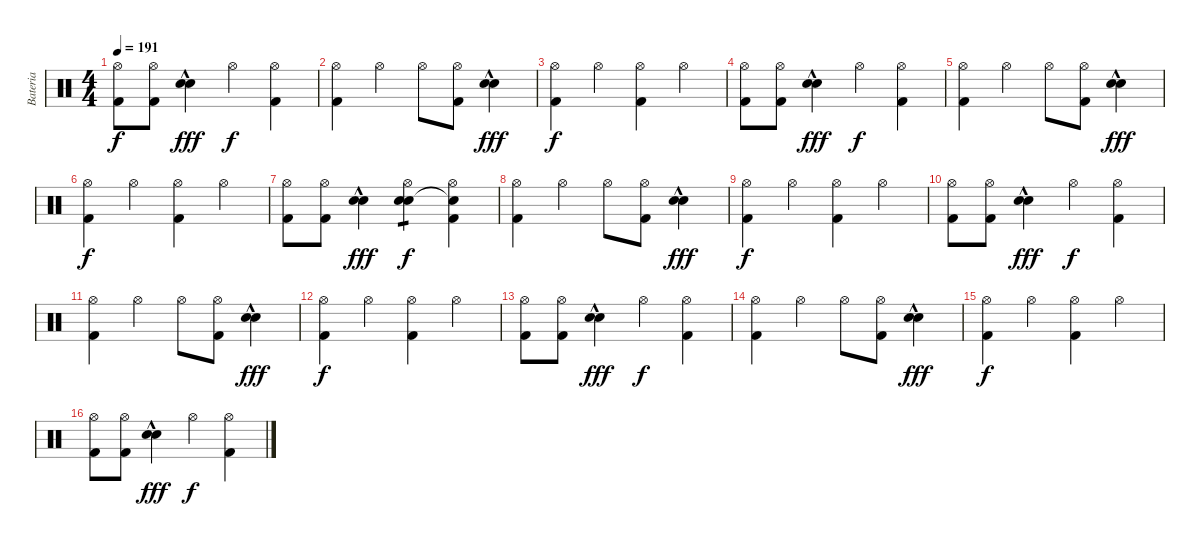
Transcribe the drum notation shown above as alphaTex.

\track ("Bateria" "Bateria") {instrument percussion}
\staff {score}
\articulation defaults
\ts (4 4)
\tempo 191
\clef neutral
\ks c
("Hi-Hat (open)" "Kick (hit) 2").8{dy f} ("Hi-Hat (open)" "Kick (hit) 2").8 ("Electric Snare (hit)"{hac} "Electric Snare (hit)"{hac}).4{dy fff} "Hi-Hat (open)".4{dy f} ("Hi-Hat (open)" "Kick (hit) 2").4 |
("Hi-Hat (open)" "Kick (hit) 2").4 "Hi-Hat (open)".4 "Hi-Hat (open)".8 ("Hi-Hat (open)" "Kick (hit) 2").8 ("Electric Snare (hit)"{hac} "Electric Snare (hit)"{hac}).4{dy fff} |
("Hi-Hat (open)" "Kick (hit) 2").4{dy f} "Hi-Hat (open)".4 ("Hi-Hat (open)" "Kick (hit) 2").4 "Hi-Hat (open)".4 |
("Hi-Hat (open)" "Kick (hit) 2").8 ("Hi-Hat (open)" "Kick (hit) 2").8 ("Electric Snare (hit)"{hac} "Electric Snare (hit)"{hac}).4{dy fff} "Hi-Hat (open)".4{dy f} ("Hi-Hat (open)" "Kick (hit) 2").4 |
("Hi-Hat (open)" "Kick (hit) 2").4 "Hi-Hat (open)".4 "Hi-Hat (open)".8 ("Hi-Hat (open)" "Kick (hit) 2").8 ("Electric Snare (hit)"{hac} "Electric Snare (hit)"{hac}).4{dy fff} |
("Hi-Hat (open)" "Kick (hit) 2").4{dy f} "Hi-Hat (open)".4 ("Hi-Hat (open)" "Kick (hit) 2").4 "Hi-Hat (open)".4 |
("Hi-Hat (open)" "Kick (hit) 2").8 ("Hi-Hat (open)" "Kick (hit) 2").8 ("Electric Snare (hit)"{hac} "Electric Snare (hit)"{hac}).4{dy fff} ("Hi-Hat (open)" "Electric Snare (hit)" "Electric Snare (hit)").4{tp 1 dy f} ("Hi-Hat (open)" "Snare (hit)"{t} "Kick (hit) 2").4 |
("Hi-Hat (open)" "Kick (hit) 2").4 "Hi-Hat (open)".4 "Hi-Hat (open)".8 ("Hi-Hat (open)" "Kick (hit) 2").8 ("Electric Snare (hit)"{hac} "Electric Snare (hit)"{hac}).4{dy fff} |
("Hi-Hat (open)" "Kick (hit) 2").4{dy f} "Hi-Hat (open)".4 ("Hi-Hat (open)" "Kick (hit) 2").4 "Hi-Hat (open)".4 |
("Hi-Hat (open)" "Kick (hit) 2").8 ("Hi-Hat (open)" "Kick (hit) 2").8 ("Electric Snare (hit)"{hac} "Electric Snare (hit)"{hac}).4{dy fff} "Hi-Hat (open)".4{dy f} ("Hi-Hat (open)" "Kick (hit) 2").4 |
("Hi-Hat (open)" "Kick (hit) 2").4 "Hi-Hat (open)".4 "Hi-Hat (open)".8 ("Hi-Hat (open)" "Kick (hit) 2").8 ("Electric Snare (hit)"{hac} "Electric Snare (hit)"{hac}).4{dy fff} |
("Hi-Hat (open)" "Kick (hit) 2").4{dy f} "Hi-Hat (open)".4 ("Hi-Hat (open)" "Kick (hit) 2").4 "Hi-Hat (open)".4 |
("Hi-Hat (open)" "Kick (hit) 2").8 ("Hi-Hat (open)" "Kick (hit) 2").8 ("Electric Snare (hit)"{hac} "Electric Snare (hit)"{hac}).4{dy fff} "Hi-Hat (open)".4{dy f} ("Hi-Hat (open)" "Kick (hit) 2").4 |
("Hi-Hat (open)" "Kick (hit) 2").4 "Hi-Hat (open)".4 "Hi-Hat (open)".8 ("Hi-Hat (open)" "Kick (hit) 2").8 ("Electric Snare (hit)"{hac} "Electric Snare (hit)"{hac}).4{dy fff} |
("Hi-Hat (open)" "Kick (hit) 2").4{dy f} "Hi-Hat (open)".4 ("Hi-Hat (open)" "Kick (hit) 2").4 "Hi-Hat (open)".4 |
("Hi-Hat (open)" "Kick (hit) 2").8 ("Hi-Hat (open)" "Kick (hit) 2").8 ("Electric Snare (hit)"{hac} "Electric Snare (hit)"{hac}).4{dy fff} "Hi-Hat (open)".4{dy f} ("Hi-Hat (open)" "Kick (hit) 2").4
